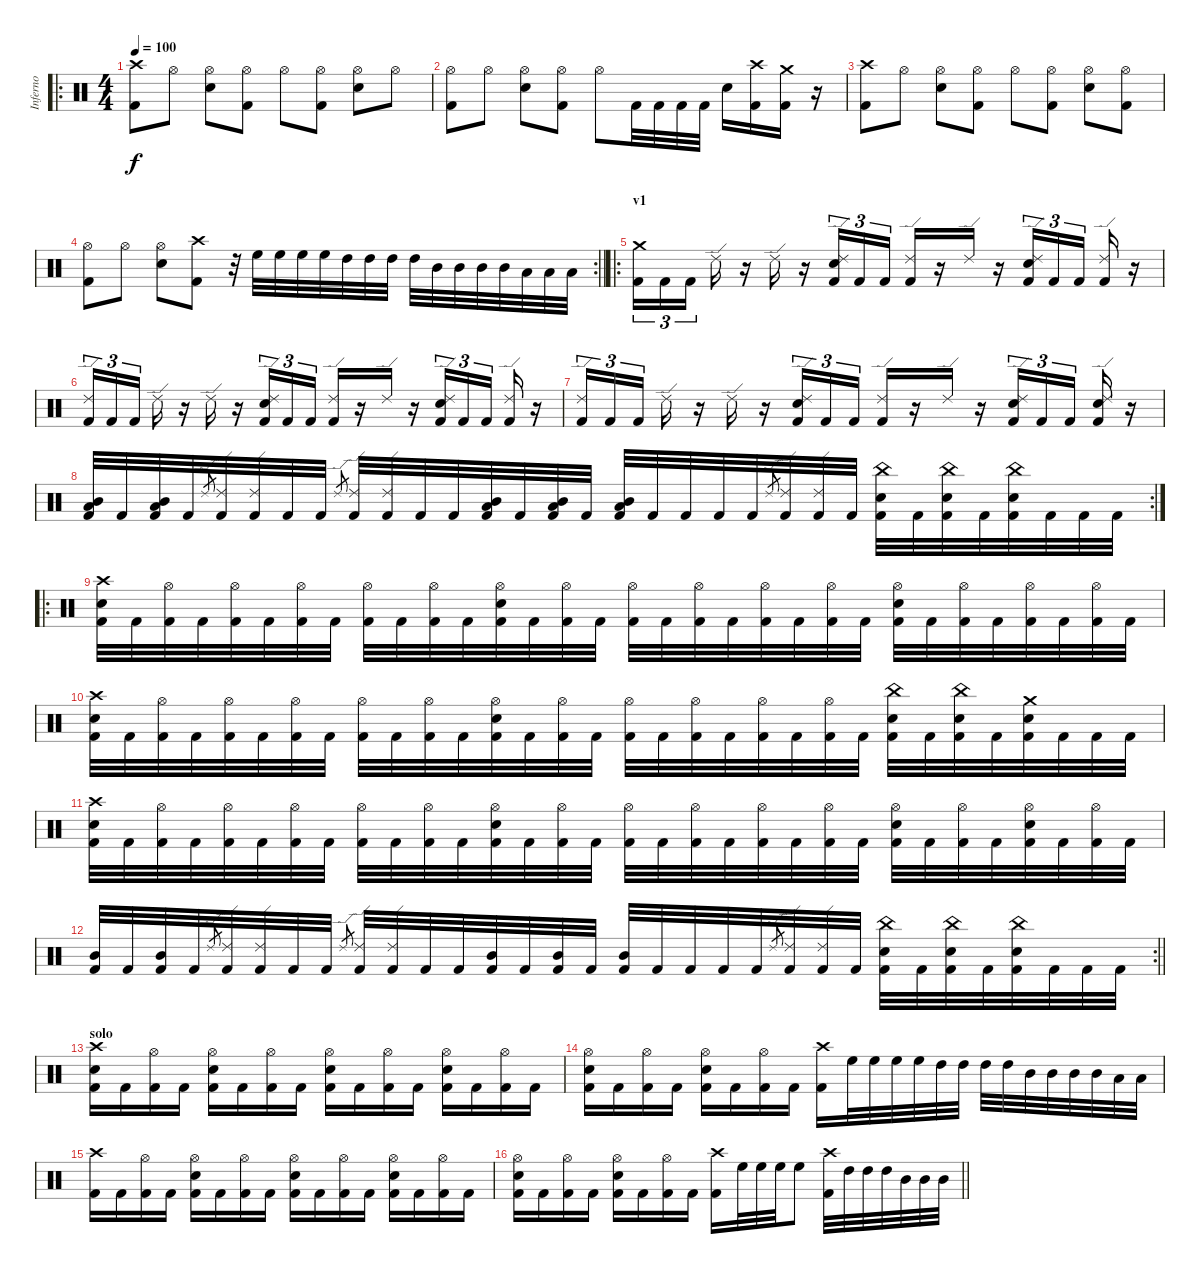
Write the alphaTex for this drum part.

\track ("Inferno" "Inferno") {instrument percussion}
\staff {score}
\articulation defaults
\ro
\ts (4 4)
\section ("" "")
\tempo 100
\clef neutral
\ks c
("Kick (hit) 2" "Crash high (hit)").8{dy f} "Hi-Hat (open)".8 ("Electric Snare (hit)" "Hi-Hat (open)").8 ("Kick (hit) 2" "Hi-Hat (open)").8 "Hi-Hat (open)".8 ("Kick (hit) 2" "Hi-Hat (open)").8 ("Electric Snare (hit)" "Hi-Hat (open)").8 "Hi-Hat (open)".8 |
("Hi-Hat (open)" "Kick (hit) 2").8 "Hi-Hat (open)".8 ("Hi-Hat (open)" "Electric Snare (hit)").8 ("Hi-Hat (open)" "Kick (hit) 2").8 "Hi-Hat (open)".8 "Kick (hit) 2".32 "Kick (hit) 2".32 "Kick (hit) 2".32 "Kick (hit) 2".32 "Electric Snare (hit)".16 ("Crash high (hit)" "Kick (hit) 2").16 ("Crash medium (hit)" "Kick (hit) 2").16 r.16 |
("Kick (hit) 2" "Crash high (hit)").8 "Hi-Hat (open)".8 ("Electric Snare (hit)" "Hi-Hat (open)").8 ("Kick (hit) 2" "Hi-Hat (open)").8 "Hi-Hat (open)".8 ("Kick (hit) 2" "Hi-Hat (open)").8 ("Electric Snare (hit)" "Hi-Hat (open)").8 ("Kick (hit) 2" "Hi-Hat (open)").8 |
\rc 2
\barLineRight lightlight
("Hi-Hat (open)" "Kick (hit) 2").8 "Hi-Hat (open)".8 ("Hi-Hat (open)" "Electric Snare (hit)").8 ("Crash high (hit)" "Kick (hit) 2").8 r.32 "High Floor Tom (hit)".32 "High Floor Tom (hit)".32 "High Floor Tom (hit)".32 "High Floor Tom (hit)".32 "High Tom (hit)".32 "High Tom (hit)".32 "High Tom (hit)".32 "High Tom (hit)".32 "Mid Tom (hit)".32 "Mid Tom (hit)".32 "Mid Tom (hit)".32 "Mid Tom (hit)".32 "Low Tom (hit)".32 "Low Tom (hit)".32 "Low Tom (hit)".32 |
\ro
\section ("" "v1")
("Kick (hit) 2" "Crash medium (hit)").16{tu (3 2)} "Kick (hit) 2".16{tu (3 2)} "Kick (hit) 2".16{tu (3 2) beam splitsecondary} "Ride (edge) 2".16 r.16 "Ride (edge) 2".16 r.16 ("Kick (hit) 2" "Electric Snare (hit)" "Ride (edge) 2").16{tu (3 2)} "Kick (hit) 2".16{tu (3 2)} "Kick (hit) 2".16{tu (3 2)} ("Kick (hit) 2" "Ride (edge) 2").16 r.16 "Ride (edge) 2".16 r.16 ("Kick (hit) 2" "Electric Snare (hit)" "Ride (edge) 2").16{tu (3 2)} "Kick (hit) 2".16{tu (3 2)} "Kick (hit) 2".16{tu (3 2) beam splitsecondary} ("Kick (hit) 2" "Ride (edge) 2").16 r.16 |
("Kick (hit) 2" "Ride (edge) 2").16{tu (3 2)} "Kick (hit) 2".16{tu (3 2)} "Kick (hit) 2".16{tu (3 2) beam splitsecondary} "Ride (edge) 2".16 r.16 "Ride (edge) 2".16 r.16 ("Kick (hit) 2" "Electric Snare (hit)" "Ride (edge) 2").16{tu (3 2)} "Kick (hit) 2".16{tu (3 2)} "Kick (hit) 2".16{tu (3 2)} ("Kick (hit) 2" "Ride (edge) 2").16 r.16 "Ride (edge) 2".16 r.16 ("Kick (hit) 2" "Electric Snare (hit)" "Ride (edge) 2").16{tu (3 2)} "Kick (hit) 2".16{tu (3 2)} "Kick (hit) 2".16{tu (3 2) beam splitsecondary} ("Kick (hit) 2" "Ride (edge) 2").16 r.16 |
("Kick (hit) 2" "Ride (edge) 2").16{tu (3 2)} "Kick (hit) 2".16{tu (3 2)} "Kick (hit) 2".16{tu (3 2) beam splitsecondary} "Ride (edge) 2".16 r.16 "Ride (edge) 2".16 r.16 ("Kick (hit) 2" "Electric Snare (hit)" "Ride (edge) 2").16{tu (3 2)} "Kick (hit) 2".16{tu (3 2)} "Kick (hit) 2".16{tu (3 2)} ("Kick (hit) 2" "Ride (edge) 2").16 r.16 "Ride (edge) 2".16 r.16 ("Kick (hit) 2" "Electric Snare (hit)" "Ride (edge) 2").16{tu (3 2)} "Kick (hit) 2".16{tu (3 2)} "Kick (hit) 2".16{tu (3 2) beam splitsecondary} ("Kick (hit) 2" "Electric Snare (hit)" "Ride (edge) 2").16 r.16 |
\rc 2
("Kick (hit) 2" "Mid Tom (hit)" "Low Tom (hit)").32 "Kick (hit) 2".32 ("Kick (hit) 2" "Mid Tom (hit)" "Low Tom (hit)").32 "Kick (hit) 2".32 "Ride (edge) 2".8{gr} ("Kick (hit) 2" "Ride (edge) 2").32 ("Kick (hit) 2" "Ride (edge) 2").32 "Kick (hit) 2".32 "Kick (hit) 2".32 "Ride (edge) 2".8{gr} ("Kick (hit) 2" "Ride (edge) 2").32 ("Kick (hit) 2" "Ride (edge) 2").32 "Kick (hit) 2".32 "Kick (hit) 2".32 ("Kick (hit) 2" "Mid Tom (hit)" "Low Tom (hit)").32 "Kick (hit) 2".32 ("Kick (hit) 2" "Mid Tom (hit)" "Low Tom (hit)").32 "Kick (hit) 2".32 ("Kick (hit) 2" "Mid Tom (hit)" "Low Tom (hit)").32 "Kick (hit) 2".32 "Kick (hit) 2".32 "Kick (hit) 2".32 "Kick (hit) 2".32 "Ride (edge) 2".8{gr} ("Kick (hit) 2" "Ride (edge) 2").32 ("Kick (hit) 2" "Ride (edge) 2").32 "Kick (hit) 2".32 ("Kick (hit) 2" "Electric Snare (hit)" "China (hit)").32 "Kick (hit) 2".32 ("Kick (hit) 2" "Electric Snare (hit)" "China (hit)").32 "Kick (hit) 2".32 ("Kick (hit) 2" "Electric Snare (hit)" "China (hit)").32 "Kick (hit) 2".32 "Kick (hit) 2".32 "Kick (hit) 2".32 |
\ro
("Kick (hit) 2" "Electric Snare (hit)" "Crash high (hit)").32 "Kick (hit) 2".32 ("Kick (hit) 2" "Hi-Hat (open)").32 "Kick (hit) 2".32 ("Kick (hit) 2" "Hi-Hat (open)").32 "Kick (hit) 2".32 ("Kick (hit) 2" "Hi-Hat (open)").32 "Kick (hit) 2".32 ("Kick (hit) 2" "Hi-Hat (open)").32 "Kick (hit) 2".32 ("Kick (hit) 2" "Hi-Hat (open)").32 "Kick (hit) 2".32 ("Kick (hit) 2" "Electric Snare (hit)" "Hi-Hat (open)").32 "Kick (hit) 2".32 ("Kick (hit) 2" "Hi-Hat (open)").32 "Kick (hit) 2".32 ("Kick (hit) 2" "Hi-Hat (open)").32 "Kick (hit) 2".32 ("Kick (hit) 2" "Hi-Hat (open)").32 "Kick (hit) 2".32 ("Kick (hit) 2" "Hi-Hat (open)").32 "Kick (hit) 2".32 ("Kick (hit) 2" "Hi-Hat (open)").32 "Kick (hit) 2".32 ("Kick (hit) 2" "Electric Snare (hit)" "Hi-Hat (open)").32 "Kick (hit) 2".32 ("Kick (hit) 2" "Hi-Hat (open)").32 "Kick (hit) 2".32 ("Kick (hit) 2" "Hi-Hat (open)").32 "Kick (hit) 2".32 ("Kick (hit) 2" "Hi-Hat (open)").32 "Kick (hit) 2".32 |
("Kick (hit) 2" "Electric Snare (hit)" "Crash high (hit)").32 "Kick (hit) 2".32 ("Kick (hit) 2" "Hi-Hat (open)").32 "Kick (hit) 2".32 ("Kick (hit) 2" "Hi-Hat (open)").32 "Kick (hit) 2".32 ("Kick (hit) 2" "Hi-Hat (open)").32 "Kick (hit) 2".32 ("Kick (hit) 2" "Hi-Hat (open)").32 "Kick (hit) 2".32 ("Kick (hit) 2" "Hi-Hat (open)").32 "Kick (hit) 2".32 ("Kick (hit) 2" "Electric Snare (hit)" "Hi-Hat (open)").32 "Kick (hit) 2".32 ("Kick (hit) 2" "Hi-Hat (open)").32 "Kick (hit) 2".32 ("Kick (hit) 2" "Hi-Hat (open)").32 "Kick (hit) 2".32 ("Kick (hit) 2" "Hi-Hat (open)").32 "Kick (hit) 2".32 ("Kick (hit) 2" "Hi-Hat (open)").32 "Kick (hit) 2".32 ("Kick (hit) 2" "Hi-Hat (open)").32 "Kick (hit) 2".32 ("Kick (hit) 2" "Electric Snare (hit)" "China (hit)").32 "Kick (hit) 2".32 ("Kick (hit) 2" "Electric Snare (hit)" "China (hit)").32 "Kick (hit) 2".32 ("Kick (hit) 2" "Electric Snare (hit)" "Crash medium (hit)").32 "Kick (hit) 2".32 "Kick (hit) 2".32 "Kick (hit) 2".32 |
("Kick (hit) 2" "Electric Snare (hit)" "Crash high (hit)").32 "Kick (hit) 2".32 ("Kick (hit) 2" "Hi-Hat (open)").32 "Kick (hit) 2".32 ("Kick (hit) 2" "Hi-Hat (open)").32 "Kick (hit) 2".32 ("Kick (hit) 2" "Hi-Hat (open)").32 "Kick (hit) 2".32 ("Kick (hit) 2" "Hi-Hat (open)").32 "Kick (hit) 2".32 ("Kick (hit) 2" "Hi-Hat (open)").32 "Kick (hit) 2".32 ("Kick (hit) 2" "Electric Snare (hit)" "Hi-Hat (open)").32 "Kick (hit) 2".32 ("Kick (hit) 2" "Hi-Hat (open)").32 "Kick (hit) 2".32 ("Kick (hit) 2" "Hi-Hat (open)").32 "Kick (hit) 2".32 ("Kick (hit) 2" "Hi-Hat (open)").32 "Kick (hit) 2".32 ("Kick (hit) 2" "Hi-Hat (open)").32 "Kick (hit) 2".32 ("Kick (hit) 2" "Hi-Hat (open)").32 "Kick (hit) 2".32 ("Kick (hit) 2" "Electric Snare (hit)" "Hi-Hat (open)").32 "Kick (hit) 2".32 ("Kick (hit) 2" "Hi-Hat (open)").32 "Kick (hit) 2".32 ("Kick (hit) 2" "Electric Snare (hit)" "Hi-Hat (open)").32 "Kick (hit) 2".32 ("Kick (hit) 2" "Hi-Hat (open)").32 "Kick (hit) 2".32 |
\rc 2
\barLineRight lightlight
("Kick (hit) 2" "Mid Tom (hit)").32 "Kick (hit) 2".32 ("Kick (hit) 2" "Mid Tom (hit)").32 "Kick (hit) 2".32 "Ride (edge) 2".8{gr} ("Kick (hit) 2" "Ride (edge) 2").32 ("Kick (hit) 2" "Ride (edge) 2").32 "Kick (hit) 2".32 "Kick (hit) 2".32 "Ride (edge) 2".8{gr} ("Kick (hit) 2" "Ride (edge) 2").32 ("Kick (hit) 2" "Ride (edge) 2").32 "Kick (hit) 2".32 "Kick (hit) 2".32 ("Kick (hit) 2" "Mid Tom (hit)").32 "Kick (hit) 2".32 ("Kick (hit) 2" "Mid Tom (hit)").32 "Kick (hit) 2".32 ("Kick (hit) 2" "Mid Tom (hit)").32 "Kick (hit) 2".32 "Kick (hit) 2".32 "Kick (hit) 2".32 "Kick (hit) 2".32 "Ride (edge) 2".8{gr} ("Kick (hit) 2" "Ride (edge) 2").32 ("Kick (hit) 2" "Ride (edge) 2").32 "Kick (hit) 2".32 ("Kick (hit) 2" "Electric Snare (hit)" "China (hit)").32 "Kick (hit) 2".32 ("Kick (hit) 2" "Electric Snare (hit)" "China (hit)").32 "Kick (hit) 2".32 ("Kick (hit) 2" "Electric Snare (hit)" "China (hit)").32 "Kick (hit) 2".32 "Kick (hit) 2".32 "Kick (hit) 2".32 |
\section ("" "solo")
("Crash high (hit)" "Electric Snare (hit)" "Kick (hit) 2").16 "Kick (hit) 2".16 ("Hi-Hat (open)" "Kick (hit) 2").16 "Kick (hit) 2".16 ("Hi-Hat (open)" "Electric Snare (hit)" "Kick (hit) 2").16 "Kick (hit) 2".16 ("Hi-Hat (open)" "Kick (hit) 2").16 "Kick (hit) 2".16 ("Hi-Hat (open)" "Electric Snare (hit)" "Kick (hit) 2").16 "Kick (hit) 2".16 ("Hi-Hat (open)" "Kick (hit) 2").16 "Kick (hit) 2".16 ("Hi-Hat (open)" "Electric Snare (hit)" "Kick (hit) 2").16 "Kick (hit) 2".16 ("Hi-Hat (open)" "Kick (hit) 2").16 "Kick (hit) 2".16 |
("Hi-Hat (open)" "Electric Snare (hit)" "Kick (hit) 2").16 "Kick (hit) 2".16 ("Hi-Hat (open)" "Kick (hit) 2").16 "Kick (hit) 2".16 ("Hi-Hat (open)" "Electric Snare (hit)" "Kick (hit) 2").16 "Kick (hit) 2".16 ("Hi-Hat (open)" "Kick (hit) 2").16 "Kick (hit) 2".16 ("Crash high (hit)" "Kick (hit) 2").16 "High Floor Tom (hit)".32 "High Floor Tom (hit)".32 "High Floor Tom (hit)".32 "High Floor Tom (hit)".32 "High Tom (hit)".32 "High Tom (hit)".32 "High Tom (hit)".32 "High Tom (hit)".32 "Mid Tom (hit)".32 "Mid Tom (hit)".32 "Mid Tom (hit)".32 "Mid Tom (hit)".32 "Low Tom (hit)".32 "Low Tom (hit)".32 |
("Crash high (hit)" "Kick (hit) 2").16 "Kick (hit) 2".16 ("Hi-Hat (open)" "Kick (hit) 2").16 "Kick (hit) 2".16 ("Hi-Hat (open)" "Electric Snare (hit)" "Kick (hit) 2").16 "Kick (hit) 2".16 ("Hi-Hat (open)" "Kick (hit) 2").16 "Kick (hit) 2".16 ("Hi-Hat (open)" "Electric Snare (hit)" "Kick (hit) 2").16 "Kick (hit) 2".16 ("Hi-Hat (open)" "Kick (hit) 2").16 "Kick (hit) 2".16 ("Hi-Hat (open)" "Electric Snare (hit)" "Kick (hit) 2").16 "Kick (hit) 2".16 ("Hi-Hat (open)" "Kick (hit) 2").16 "Kick (hit) 2".16 |
\barLineRight lightlight
("Hi-Hat (open)" "Electric Snare (hit)" "Kick (hit) 2").16 "Kick (hit) 2".16 ("Hi-Hat (open)" "Kick (hit) 2").16 "Kick (hit) 2".16 ("Hi-Hat (open)" "Electric Snare (hit)" "Kick (hit) 2").16 "Kick (hit) 2".16 ("Hi-Hat (open)" "Kick (hit) 2").16 "Kick (hit) 2".16 ("Crash high (hit)" "Kick (hit) 2").16 "High Floor Tom (hit)".32 "High Floor Tom (hit)".32 "High Floor Tom (hit)".32 "High Floor Tom (hit)".8 ("Crash high (hit)" "Kick (hit) 2").32 "High Tom (hit)".32 "High Tom (hit)".32 "High Tom (hit)".32 "Mid Tom (hit)".32 "Mid Tom (hit)".32 "Mid Tom (hit)".32
